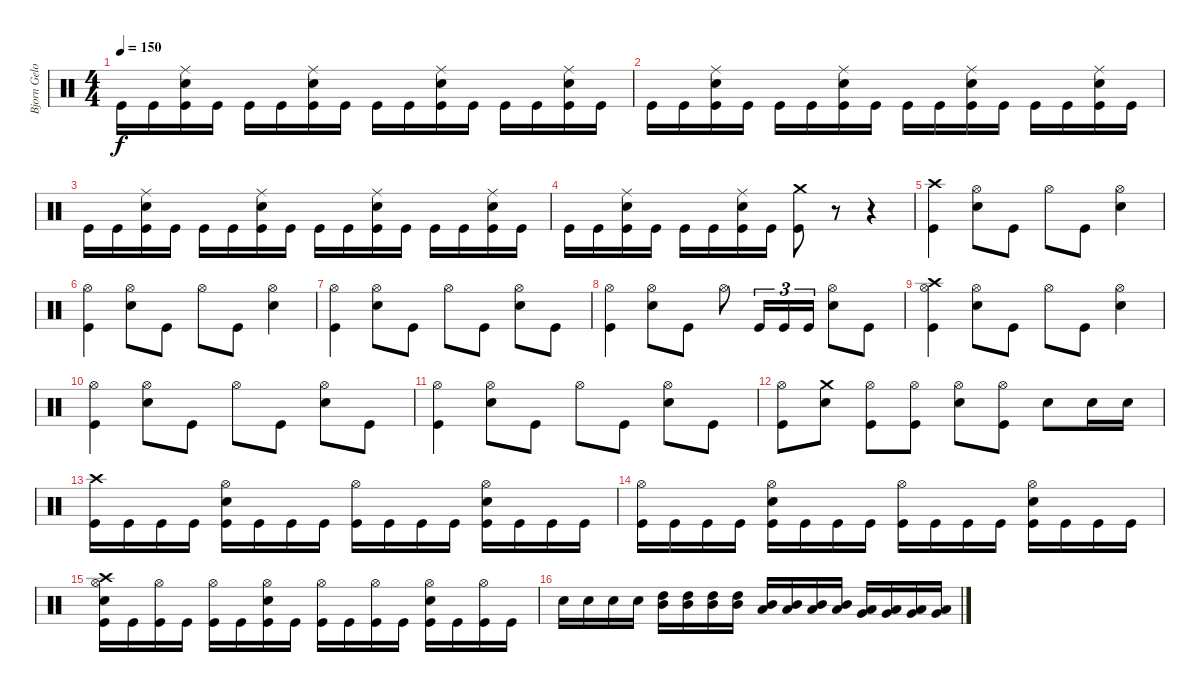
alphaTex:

\track ("Bjorn Gelotte-Drum" "Bjorn Gelo") {instrument percussion}
\staff {score}
\articulation defaults
\ts (4 4)
\tempo 150
\clef neutral
\ks c "Kick (hit)".16{dy f} "Kick (hit)".16
("Kick (hit)" "Electric Snare (hit)" "Ride (middle)").16 "Kick (hit)".16 "Kick (hit)".16 "Kick (hit)".16 ("Kick (hit)" "Electric Snare (hit)" "Ride (middle)").16 "Kick (hit)".16 "Kick (hit)".16 "Kick (hit)".16 ("Kick (hit)" "Electric Snare (hit)" "Ride (middle)").16 "Kick (hit)".16 "Kick (hit)".16 "Kick (hit)".16 ("Kick (hit)" "Electric Snare (hit)" "Ride (middle)").16 "Kick (hit)".16 |
"Kick (hit)".16 "Kick (hit)".16 ("Kick (hit)" "Electric Snare (hit)" "Ride (middle)").16 "Kick (hit)".16 "Kick (hit)".16 "Kick (hit)".16 ("Kick (hit)" "Electric Snare (hit)" "Ride (middle)").16 "Kick (hit)".16 "Kick (hit)".16 "Kick (hit)".16 ("Kick (hit)" "Electric Snare (hit)" "Ride (middle)").16 "Kick (hit)".16 "Kick (hit)".16 "Kick (hit)".16 ("Kick (hit)" "Electric Snare (hit)" "Ride (middle)").16 "Kick (hit)".16 |
"Kick (hit)".16 "Kick (hit)".16 ("Kick (hit)" "Electric Snare (hit)" "Ride (middle)").16 "Kick (hit)".16 "Kick (hit)".16 "Kick (hit)".16 ("Kick (hit)" "Electric Snare (hit)" "Ride (middle)").16 "Kick (hit)".16 "Kick (hit)".16 "Kick (hit)".16 ("Kick (hit)" "Electric Snare (hit)" "Ride (middle)").16 "Kick (hit)".16 "Kick (hit)".16 "Kick (hit)".16 ("Kick (hit)" "Electric Snare (hit)" "Ride (middle)").16 "Kick (hit)".16 |
"Kick (hit)".16 "Kick (hit)".16 ("Kick (hit)" "Electric Snare (hit)" "Ride (middle)").16 "Kick (hit)".16 "Kick (hit)".16 "Kick (hit)".16 ("Kick (hit)" "Electric Snare (hit)" "Ride (middle)").16 "Kick (hit)".16 ("Kick (hit)" "Crash medium (hit)").8 r.8 r.4 |
("Kick (hit)" "Crash high (hit)").4 ("Electric Snare (hit)" "Hi-Hat (open)").8 "Kick (hit)".8 "Hi-Hat (open)".8 "Kick (hit)".8 ("Electric Snare (hit)" "Hi-Hat (open)").4 |
("Kick (hit)" "Hi-Hat (open)").4 ("Electric Snare (hit)" "Hi-Hat (open)").8 "Kick (hit)".8 "Hi-Hat (open)".8 "Kick (hit)".8 ("Electric Snare (hit)" "Hi-Hat (open)").4 |
("Kick (hit)" "Hi-Hat (open)").4 ("Electric Snare (hit)" "Hi-Hat (open)").8 "Kick (hit)".8 "Hi-Hat (open)".8 "Kick (hit)".8 ("Electric Snare (hit)" "Hi-Hat (open)").8 "Kick (hit)".8 |
("Kick (hit)" "Hi-Hat (open)").4 ("Electric Snare (hit)" "Hi-Hat (open)").8 "Kick (hit)".8 "Hi-Hat (open)".8 "Kick (hit)".16{tu (3 2)} "Kick (hit)".16{tu (3 2)} "Kick (hit)".16{tu (3 2)} ("Electric Snare (hit)" "Hi-Hat (open)").8 "Kick (hit)".8 |
("Kick (hit)" "Hi-Hat (open)" "Crash high (hit)").4 ("Electric Snare (hit)" "Hi-Hat (open)").8 "Kick (hit)".8 "Hi-Hat (open)".8 "Kick (hit)".8 ("Electric Snare (hit)" "Hi-Hat (open)").4 |
("Kick (hit)" "Hi-Hat (open)").4 ("Electric Snare (hit)" "Hi-Hat (open)").8 "Kick (hit)".8 "Hi-Hat (open)".8 "Kick (hit)".8 ("Electric Snare (hit)" "Hi-Hat (open)").8 "Kick (hit)".8 |
("Kick (hit)" "Hi-Hat (open)").4 ("Electric Snare (hit)" "Hi-Hat (open)").8 "Kick (hit)".8 "Hi-Hat (open)".8 "Kick (hit)".8 ("Electric Snare (hit)" "Hi-Hat (open)").8 "Kick (hit)".8 |
("Kick (hit)" "Hi-Hat (open)").8 ("Electric Snare (hit)" "Crash medium (hit)").8 ("Kick (hit)" "Hi-Hat (open)").8 ("Kick (hit)" "Hi-Hat (open)").8 ("Electric Snare (hit)" "Hi-Hat (open)").8 ("Kick (hit)" "Hi-Hat (open)").8 "Electric Snare (hit)".8 "Electric Snare (hit)".16 "Electric Snare (hit)".16 |
("Kick (hit)" "Crash high (hit)").16 "Kick (hit)".16 "Kick (hit)".16 "Kick (hit)".16 ("Kick (hit)" "Electric Snare (hit)" "Hi-Hat (open)").16 "Kick (hit)".16 "Kick (hit)".16 "Kick (hit)".16 ("Kick (hit)" "Hi-Hat (open)").16 "Kick (hit)".16 "Kick (hit)".16 "Kick (hit)".16 ("Kick (hit)" "Electric Snare (hit)" "Hi-Hat (open)").16 "Kick (hit)".16 "Kick (hit)".16 "Kick (hit)".16 |
("Kick (hit)" "Hi-Hat (open)").16 "Kick (hit)".16 "Kick (hit)".16 "Kick (hit)".16 ("Kick (hit)" "Electric Snare (hit)" "Hi-Hat (open)").16 "Kick (hit)".16 "Kick (hit)".16 "Kick (hit)".16 ("Kick (hit)" "Hi-Hat (open)").16 "Kick (hit)".16 "Kick (hit)".16 "Kick (hit)".16 ("Kick (hit)" "Electric Snare (hit)" "Hi-Hat (open)").16 "Kick (hit)".16 "Kick (hit)".16 "Kick (hit)".16 |
("Kick (hit)" "Electric Snare (hit)" "Hi-Hat (open)" "Crash high (hit)").16 "Kick (hit)".16 ("Kick (hit)" "Hi-Hat (open)").16 "Kick (hit)".16 ("Kick (hit)" "Hi-Hat (open)").16 "Kick (hit)".16 ("Kick (hit)" "Electric Snare (hit)" "Hi-Hat (open)").16 "Kick (hit)".16 ("Kick (hit)" "Hi-Hat (open)").16 "Kick (hit)".16 ("Kick (hit)" "Hi-Hat (open)").16 "Kick (hit)".16 ("Kick (hit)" "Electric Snare (hit)" "Hi-Hat (open)").16 "Kick (hit)".16 ("Kick (hit)" "Hi-Hat (open)").16 "Kick (hit)".16 |
"Electric Snare (hit)".16 "Electric Snare (hit)".16 "Electric Snare (hit)".16 "Electric Snare (hit)".16 ("High Tom (hit)" "Mid Tom (hit)").16 ("High Tom (hit)" "Mid Tom (hit)").16 ("High Tom (hit)" "Mid Tom (hit)").16 ("High Tom (hit)" "Mid Tom (hit)").16 ("Mid Tom (hit)" "Low Tom (hit)").16 ("Mid Tom (hit)" "Low Tom (hit)").16 ("Mid Tom (hit)" "Low Tom (hit)").16 ("Mid Tom (hit)" "Low Tom (hit)").16 ("Low Tom (hit)" "Very Low Tom (hit)").16 ("Low Tom (hit)" "Very Low Tom (hit)").16 ("Low Tom (hit)" "Very Low Tom (hit)").16 ("Low Tom (hit)" "Very Low Tom (hit)").16
